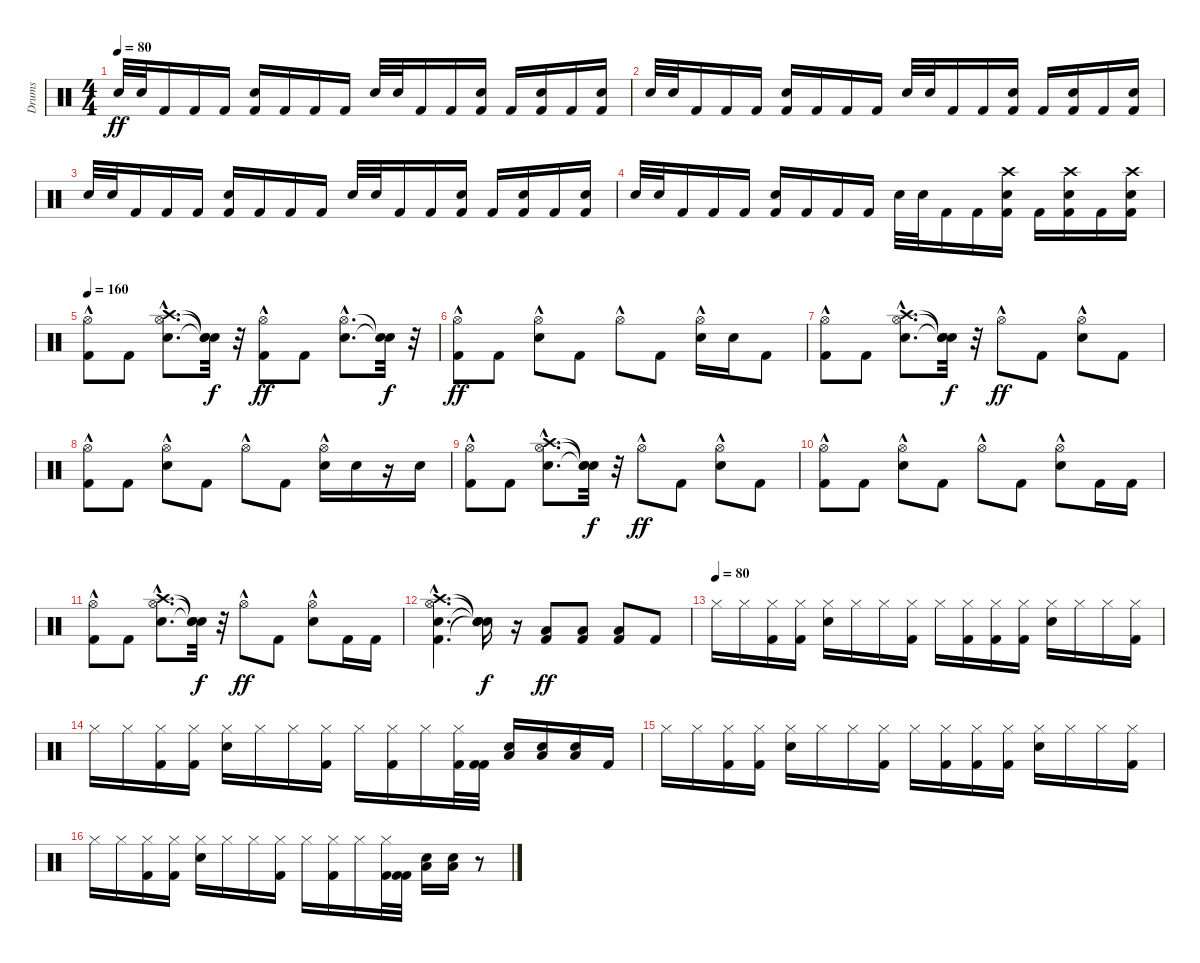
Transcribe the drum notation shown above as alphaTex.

\track ("Drums" "Drums") {instrument percussion}
\staff {score}
\articulation defaults
\ts (4 4)
\tempo 80
\clef neutral
\ks c "Snare (hit) 2".32{dy ff} "Snare (hit) 2".32 "Kick (hit) 2".16 "Kick (hit) 2".16 "Kick (hit) 2".16
("Kick (hit) 2" "Snare (hit) 2").16 "Kick (hit) 2".16 "Kick (hit) 2".16 "Kick (hit) 2".16 "Snare (hit) 2".32 "Snare (hit) 2".32 "Kick (hit) 2".16 "Kick (hit) 2".16 ("Kick (hit) 2" "Snare (hit) 2").16 "Kick (hit) 2".16 ("Kick (hit) 2" "Snare (hit) 2").16 "Kick (hit) 2".16 ("Kick (hit) 2" "Snare (hit) 2").16 |
"Snare (hit) 2".32 "Snare (hit) 2".32 "Kick (hit) 2".16 "Kick (hit) 2".16 "Kick (hit) 2".16 ("Kick (hit) 2" "Snare (hit) 2").16 "Kick (hit) 2".16 "Kick (hit) 2".16 "Kick (hit) 2".16 "Snare (hit) 2".32 "Snare (hit) 2".32 "Kick (hit) 2".16 "Kick (hit) 2".16 ("Kick (hit) 2" "Snare (hit) 2").16 "Kick (hit) 2".16 ("Kick (hit) 2" "Snare (hit) 2").16 "Kick (hit) 2".16 ("Kick (hit) 2" "Snare (hit) 2").16 |
"Snare (hit) 2".32 "Snare (hit) 2".32 "Kick (hit) 2".16 "Kick (hit) 2".16 "Kick (hit) 2".16 ("Kick (hit) 2" "Snare (hit) 2").16 "Kick (hit) 2".16 "Kick (hit) 2".16 "Kick (hit) 2".16 "Snare (hit) 2".32 "Snare (hit) 2".32 "Kick (hit) 2".16 "Kick (hit) 2".16 ("Kick (hit) 2" "Snare (hit) 2").16 "Kick (hit) 2".16 ("Kick (hit) 2" "Snare (hit) 2").16 "Kick (hit) 2".16 ("Kick (hit) 2" "Snare (hit) 2").16 |
"Snare (hit) 2".32 "Snare (hit) 2".32 "Kick (hit) 2".16 "Kick (hit) 2".16 "Kick (hit) 2".16 ("Kick (hit) 2" "Snare (hit) 2").16 "Kick (hit) 2".16 "Kick (hit) 2".16 "Kick (hit) 2".16 "Snare (hit) 2".32 "Snare (hit) 2".32 "Kick (hit) 2".16 "Kick (hit) 2".16 ("Kick (hit) 2" "Snare (hit) 2" "Crash high (hit)").16 "Kick (hit) 2".16 ("Kick (hit) 2" "Snare (hit) 2" "Crash high (hit)").16 "Kick (hit) 2".16 ("Kick (hit) 2" "Snare (hit) 2" "Crash high (hit)").16 |
\tempo 160
("Kick (hit) 2" "Hi-Hat (open)"{hac}).8 "Kick (hit) 2".8 ("Snare (hit) 2"{hac} "Hi-Hat (open)"{hac} "Crash high (hit)"{hac}).8{d} ("Snare (hit)"{t} "Snare (hit)"{t} "Snare (hit)"{t}).32{dy f} r.32 ("Kick (hit) 2" "Hi-Hat (open)"{hac}).8{dy ff} "Kick (hit) 2".8 ("Snare (hit) 2"{hac} "Hi-Hat (open)"{hac}).8{d} ("Snare (hit)"{t} "Snare (hit)"{t}).32{dy f} r.32 |
("Kick (hit) 2" "Hi-Hat (open)"{hac}).8{dy ff} "Kick (hit) 2".8 ("Snare (hit) 2" "Hi-Hat (open)"{hac}).8 "Kick (hit) 2".8 "Hi-Hat (open)"{hac}.8 "Kick (hit) 2".8 ("Snare (hit) 2" "Hi-Hat (open)"{hac}).16 "Snare (hit) 2".16 "Kick (hit) 2".8 |
("Kick (hit) 2" "Hi-Hat (open)"{hac}).8 "Kick (hit) 2".8 ("Snare (hit) 2"{hac} "Hi-Hat (open)"{hac} "Crash high (hit)"{hac}).8{d} ("Snare (hit)"{t} "Snare (hit)"{t} "Snare (hit)"{t}).32{dy f} r.32 "Hi-Hat (open)"{hac}.8{dy ff} "Kick (hit) 2".8 ("Snare (hit) 2" "Hi-Hat (open)"{hac}).8 "Kick (hit) 2".8 |
("Kick (hit) 2" "Hi-Hat (open)"{hac}).8 "Kick (hit) 2".8 ("Snare (hit) 2" "Hi-Hat (open)"{hac}).8 "Kick (hit) 2".8 "Hi-Hat (open)"{hac}.8 "Kick (hit) 2".8 ("Snare (hit) 2" "Hi-Hat (open)"{hac}).16 "Snare (hit) 2".16 r.16 "Snare (hit) 2".16 |
("Kick (hit) 2" "Hi-Hat (open)"{hac}).8 "Kick (hit) 2".8 ("Snare (hit) 2"{hac} "Hi-Hat (open)"{hac} "Crash high (hit)"{hac}).8{d} ("Snare (hit)"{t} "Snare (hit)"{t} "Snare (hit)"{t}).32{dy f} r.32 "Hi-Hat (open)"{hac}.8{dy ff} "Kick (hit) 2".8 ("Snare (hit) 2" "Hi-Hat (open)"{hac}).8 "Kick (hit) 2".8 |
("Kick (hit) 2" "Hi-Hat (open)"{hac}).8 "Kick (hit) 2".8 ("Snare (hit) 2" "Hi-Hat (open)"{hac}).8 "Kick (hit) 2".8 "Hi-Hat (open)"{hac}.8 "Kick (hit) 2".8 ("Snare (hit) 2" "Hi-Hat (open)"{hac}).8 "Kick (hit) 2".16 "Kick (hit) 2".16 |
("Kick (hit) 2" "Hi-Hat (open)"{hac}).8 "Kick (hit) 2".8 ("Snare (hit) 2"{hac} "Hi-Hat (open)"{hac} "Crash high (hit)"{hac}).8{d} ("Snare (hit)"{t} "Snare (hit)"{t} "Snare (hit)"{t}).32{dy f} r.32 "Hi-Hat (open)"{hac}.8{dy ff} "Kick (hit) 2".8 ("Snare (hit) 2" "Hi-Hat (open)"{hac}).8 "Kick (hit) 2".16 "Kick (hit) 2".16 |
("Kick (hit) 2"{hac} "Snare (hit) 2"{hac} "Hi-Hat (open)"{hac} "Crash high (hit)"{hac}).4{d} ("Snare (hit)"{t} "Snare (hit)"{t} "Snare (hit)"{t} "Snare (hit)"{t}).16{dy f} r.16 ("Kick (hit) 2" "Low Floor Tom (hit)").8{dy ff} ("Kick (hit) 2" "Low Floor Tom (hit)").8 ("Kick (hit) 2" "Low Floor Tom (hit)").8 "Kick (hit) 2".8 |
\tempo (80)
"Hi-Hat (closed)".16 "Hi-Hat (closed)".16 ("Kick (hit) 2" "Hi-Hat (closed)").16 ("Kick (hit) 2" "Hi-Hat (closed)").16 ("Snare (hit) 2" "Hi-Hat (closed)").16 "Hi-Hat (closed)".16 "Hi-Hat (closed)".16 ("Kick (hit) 2" "Hi-Hat (closed)").16 "Hi-Hat (closed)".16 ("Kick (hit) 2" "Hi-Hat (closed)").16 ("Kick (hit) 2" "Hi-Hat (closed)").16 ("Kick (hit) 2" "Hi-Hat (closed)").16 ("Snare (hit) 2" "Hi-Hat (closed)").16 "Hi-Hat (closed)".16 "Hi-Hat (closed)".16 ("Kick (hit) 2" "Hi-Hat (closed)").16 |
"Hi-Hat (closed)".16 "Hi-Hat (closed)".16 ("Kick (hit) 2" "Hi-Hat (closed)").16 ("Kick (hit) 2" "Hi-Hat (closed)").16 ("Snare (hit) 2" "Hi-Hat (closed)").16 "Hi-Hat (closed)".16 "Hi-Hat (closed)".16 ("Kick (hit) 2" "Hi-Hat (closed)").16 "Hi-Hat (closed)".16 ("Kick (hit) 2" "Hi-Hat (closed)").16 "Hi-Hat (closed)".16 ("Kick (hit) 2" "Hi-Hat (closed)").32 ("Kick (hit) 2" "Kick (hit) 2").32 ("Snare (hit) 2" "Low Floor Tom (hit)").16 ("Snare (hit) 2" "Low Floor Tom (hit)").16 ("Snare (hit) 2" "Low Floor Tom (hit)").16 "Kick (hit) 2".16 |
"Hi-Hat (closed)".16 "Hi-Hat (closed)".16 ("Kick (hit) 2" "Hi-Hat (closed)").16 ("Kick (hit) 2" "Hi-Hat (closed)").16 ("Snare (hit) 2" "Hi-Hat (closed)").16 "Hi-Hat (closed)".16 "Hi-Hat (closed)".16 ("Kick (hit) 2" "Hi-Hat (closed)").16 "Hi-Hat (closed)".16 ("Kick (hit) 2" "Hi-Hat (closed)").16 ("Kick (hit) 2" "Hi-Hat (closed)").16 ("Kick (hit) 2" "Hi-Hat (closed)").16 ("Snare (hit) 2" "Hi-Hat (closed)").16 "Hi-Hat (closed)".16 "Hi-Hat (closed)".16 ("Kick (hit) 2" "Hi-Hat (closed)").16 |
"Hi-Hat (closed)".16 "Hi-Hat (closed)".16 ("Kick (hit) 2" "Hi-Hat (closed)").16 ("Kick (hit) 2" "Hi-Hat (closed)").16 ("Snare (hit) 2" "Hi-Hat (closed)").16 "Hi-Hat (closed)".16 "Hi-Hat (closed)".16 ("Kick (hit) 2" "Hi-Hat (closed)").16 "Hi-Hat (closed)".16 ("Kick (hit) 2" "Hi-Hat (closed)").16 "Hi-Hat (closed)".16 ("Kick (hit) 2" "Hi-Hat (closed)").32 ("Kick (hit) 2" "Kick (hit) 2").32 ("Snare (hit) 2" "Low Floor Tom (hit)").16 ("Snare (hit) 2" "Low Floor Tom (hit)").16 r.8
